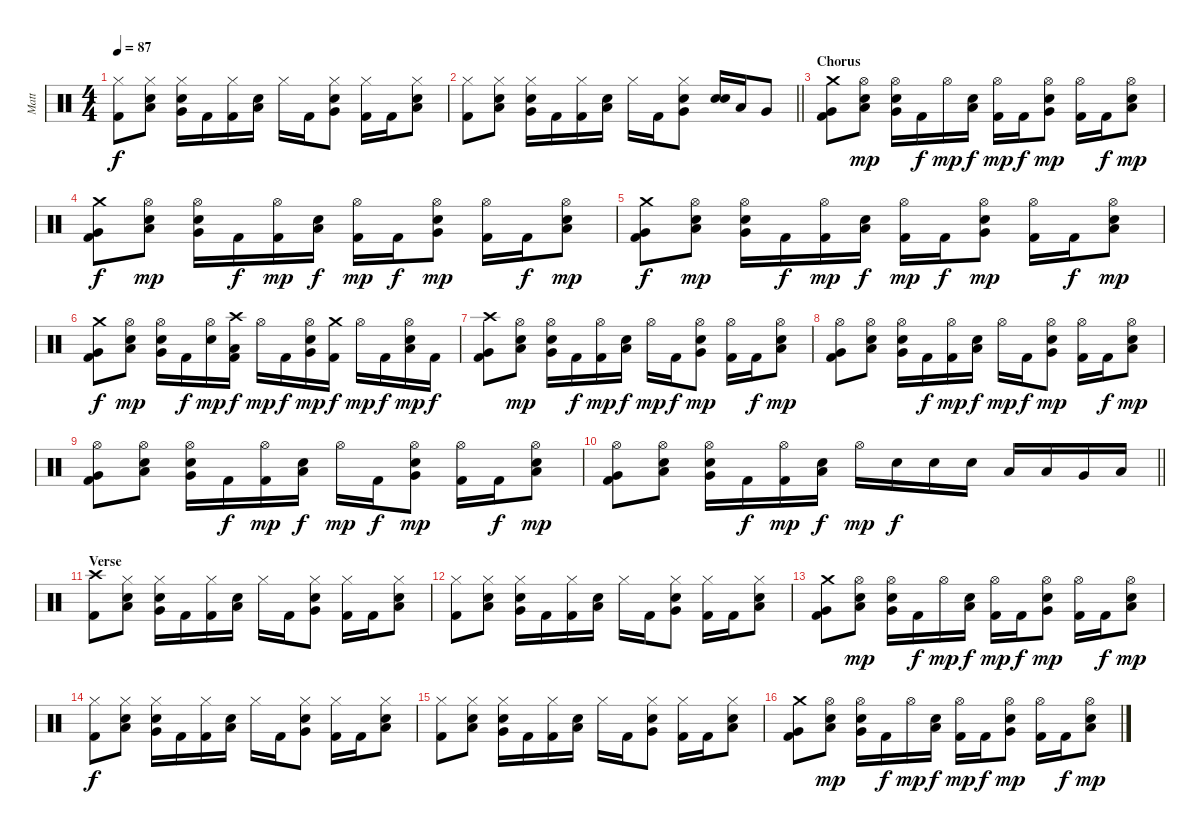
\track ("Matt" "Matt") {instrument percussion}
\staff {score}
\articulation defaults
\ts (4 4)
\tempo 87
\clef neutral
\ks c
("Hi-Hat (closed)" "Kick (hit) 2").8{dy f} ("Hi-Hat (closed)" "Low Tom (hit)" "Snare (hit) 2").8 ("Hi-Hat (closed)" "Very Low Tom (hit)" "Snare (hit) 2").16 "Kick (hit) 2".16 ("Hi-Hat (closed)" "Kick (hit) 2").16 ("Low Tom (hit)" "Snare (hit) 2").16 "Hi-Hat (closed)".16 "Kick (hit) 2".16 ("Hi-Hat (closed)" "Very Low Tom (hit)" "Snare (hit) 2").8 ("Hi-Hat (closed)" "Kick (hit) 2").16 "Kick (hit) 2".16 ("Hi-Hat (closed)" "Low Tom (hit)" "Snare (hit) 2").8 |
\barLineRight lightlight
("Hi-Hat (closed)" "Kick (hit) 2").8 ("Hi-Hat (closed)" "Low Tom (hit)" "Snare (hit) 2").8 ("Hi-Hat (closed)" "Very Low Tom (hit)" "Snare (hit) 2").16 "Kick (hit) 2".16 ("Hi-Hat (closed)" "Kick (hit) 2").16 ("Low Tom (hit)" "Snare (hit) 2").16 "Hi-Hat (closed)".16 "Kick (hit) 2".16 ("Hi-Hat (closed)" "Very Low Tom (hit)" "Snare (hit) 2").8 ("Snare (hit) 2" "Snare (hit) 2").16 "Low Tom (hit)".16 "Very Low Tom (hit)".8 |
\section ("" "Chorus")
("Crash medium (hit)" "Very Low Tom (hit)" "Kick (hit) 2").8 ("Hi-Hat (open)" "Low Tom (hit)" "Snare (hit) 2").8{dy mp} ("Hi-Hat (open)" "Very Low Tom (hit)" "Snare (hit) 2").16 "Kick (hit) 2".16{dy f} "Hi-Hat (open)".16{dy mp} ("Low Tom (hit)" "Snare (hit) 2").16{dy f} ("Hi-Hat (open)" "Kick (hit) 2").16{dy mp} "Kick (hit) 2".16{dy f} ("Hi-Hat (open)" "Very Low Tom (hit)" "Snare (hit) 2").8{dy mp} ("Hi-Hat (open)" "Kick (hit) 2").16 "Kick (hit) 2".16{dy f} ("Hi-Hat (open)" "Low Tom (hit)" "Snare (hit) 2").8{dy mp} |
("Crash medium (hit)" "Very Low Tom (hit)" "Kick (hit) 2").8{dy f} ("Hi-Hat (open)" "Low Tom (hit)" "Snare (hit) 2").8{dy mp} ("Hi-Hat (open)" "Very Low Tom (hit)" "Snare (hit) 2").16 "Kick (hit) 2".16{dy f} ("Hi-Hat (open)" "Kick (hit) 2").16{dy mp} ("Low Tom (hit)" "Snare (hit) 2").16{dy f} ("Hi-Hat (open)" "Kick (hit) 2").16{dy mp} "Kick (hit) 2".16{dy f} ("Hi-Hat (open)" "Very Low Tom (hit)" "Snare (hit) 2").8{dy mp} ("Hi-Hat (open)" "Kick (hit) 2").16 "Kick (hit) 2".16{dy f} ("Hi-Hat (open)" "Low Tom (hit)" "Snare (hit) 2").8{dy mp} |
("Crash medium (hit)" "Very Low Tom (hit)" "Kick (hit) 2").8{dy f} ("Hi-Hat (open)" "Low Tom (hit)" "Snare (hit) 2").8{dy mp} ("Hi-Hat (open)" "Very Low Tom (hit)" "Snare (hit) 2").16 "Kick (hit) 2".16{dy f} ("Hi-Hat (open)" "Kick (hit) 2").16{dy mp} ("Low Tom (hit)" "Snare (hit) 2").16{dy f} ("Hi-Hat (open)" "Kick (hit) 2").16{dy mp} "Kick (hit) 2".16{dy f} ("Hi-Hat (open)" "Very Low Tom (hit)" "Snare (hit) 2").8{dy mp} ("Hi-Hat (open)" "Kick (hit) 2").16 "Kick (hit) 2".16{dy f} ("Hi-Hat (open)" "Low Tom (hit)" "Snare (hit) 2").8{dy mp} |
("Crash medium (hit)" "Very Low Tom (hit)" "Kick (hit) 2").8{dy f} ("Hi-Hat (open)" "Low Tom (hit)" "Snare (hit) 2").8{dy mp} ("Hi-Hat (open)" "Very Low Tom (hit)" "Snare (hit) 2").16 "Kick (hit) 2".16{dy f} ("Hi-Hat (open)" "Snare (hit) 2").16{dy mp} ("Crash high (hit)" "Low Tom (hit)" "Kick (hit) 2").16{dy f} "Hi-Hat (open)".16{dy mp} "Kick (hit) 2".16{dy f} ("Hi-Hat (open)" "Very Low Tom (hit)" "Snare (hit) 2").16{dy mp} ("Crash medium (hit)" "Kick (hit) 2").16{dy f} "Hi-Hat (open)".16{dy mp} "Kick (hit) 2".16{dy f} ("Hi-Hat (open)" "Low Tom (hit)" "Snare (hit) 2").16{dy mp} "Kick (hit) 2".16{dy f} |
("Crash high (hit)" "Very Low Tom (hit)" "Kick (hit) 2").8 ("Hi-Hat (open)" "Low Tom (hit)" "Snare (hit) 2").8{dy mp} ("Hi-Hat (open)" "Very Low Tom (hit)" "Snare (hit) 2").16 "Kick (hit) 2".16{dy f} ("Hi-Hat (open)" "Kick (hit) 2").16{dy mp} ("Low Tom (hit)" "Snare (hit) 2").16{dy f} "Hi-Hat (open)".16{dy mp} "Kick (hit) 2".16{dy f} ("Hi-Hat (open)" "Very Low Tom (hit)" "Snare (hit) 2").8{dy mp} ("Hi-Hat (open)" "Kick (hit) 2").16 "Kick (hit) 2".16{dy f} ("Hi-Hat (open)" "Low Tom (hit)" "Snare (hit) 2").8{dy mp} |
("Hi-Hat (open)" "Very Low Tom (hit)" "Kick (hit) 2").8 ("Hi-Hat (open)" "Low Tom (hit)" "Snare (hit) 2").8 ("Hi-Hat (open)" "Very Low Tom (hit)" "Snare (hit) 2").16 "Kick (hit) 2".16{dy f} ("Hi-Hat (open)" "Kick (hit) 2").16{dy mp} ("Low Tom (hit)" "Snare (hit) 2").16{dy f} "Hi-Hat (open)".16{dy mp} "Kick (hit) 2".16{dy f} ("Hi-Hat (open)" "Very Low Tom (hit)" "Snare (hit) 2").8{dy mp} ("Hi-Hat (open)" "Kick (hit) 2").16 "Kick (hit) 2".16{dy f} ("Hi-Hat (open)" "Low Tom (hit)" "Snare (hit) 2").8{dy mp} |
("Hi-Hat (open)" "Very Low Tom (hit)" "Kick (hit) 2").8 ("Hi-Hat (open)" "Low Tom (hit)" "Snare (hit) 2").8 ("Hi-Hat (open)" "Very Low Tom (hit)" "Snare (hit) 2").16 "Kick (hit) 2".16{dy f} ("Hi-Hat (open)" "Kick (hit) 2").16{dy mp} ("Low Tom (hit)" "Snare (hit) 2").16{dy f} "Hi-Hat (open)".16{dy mp} "Kick (hit) 2".16{dy f} ("Hi-Hat (open)" "Very Low Tom (hit)" "Snare (hit) 2").8{dy mp} ("Hi-Hat (open)" "Kick (hit) 2").16 "Kick (hit) 2".16{dy f} ("Hi-Hat (open)" "Low Tom (hit)" "Snare (hit) 2").8{dy mp} |
\barLineRight lightlight
("Hi-Hat (open)" "Very Low Tom (hit)" "Kick (hit) 2").8 ("Hi-Hat (open)" "Low Tom (hit)" "Snare (hit) 2").8 ("Hi-Hat (open)" "Very Low Tom (hit)" "Snare (hit) 2").16 "Kick (hit) 2".16{dy f} ("Hi-Hat (open)" "Kick (hit) 2").16{dy mp} ("Low Tom (hit)" "Snare (hit) 2").16{dy f} "Hi-Hat (open)".16{dy mp} "Snare (hit) 2".16{dy f} "Snare (hit) 2".16 "Snare (hit) 2".16 "Low Tom (hit)".16 "Low Tom (hit)".16 "Very Low Tom (hit)".16 "Low Floor Tom (hit)".16 |
\section ("" "Verse")
("Crash high (hit)" "Kick (hit) 2").8 ("Hi-Hat (closed)" "Low Tom (hit)" "Snare (hit) 2").8 ("Hi-Hat (closed)" "Very Low Tom (hit)" "Snare (hit) 2").16 "Kick (hit) 2".16 ("Hi-Hat (closed)" "Kick (hit) 2").16 ("Low Tom (hit)" "Snare (hit) 2").16 "Hi-Hat (closed)".16 "Kick (hit) 2".16 ("Hi-Hat (closed)" "Very Low Tom (hit)" "Snare (hit) 2").8 ("Hi-Hat (closed)" "Kick (hit) 2").16 "Kick (hit) 2".16 ("Hi-Hat (closed)" "Low Tom (hit)" "Snare (hit) 2").8 |
("Hi-Hat (closed)" "Kick (hit) 2").8 ("Hi-Hat (closed)" "Low Tom (hit)" "Snare (hit) 2").8 ("Hi-Hat (closed)" "Very Low Tom (hit)" "Snare (hit) 2").16 "Kick (hit) 2".16 ("Hi-Hat (closed)" "Kick (hit) 2").16 ("Low Tom (hit)" "Snare (hit) 2").16 "Hi-Hat (closed)".16 "Kick (hit) 2".16 ("Hi-Hat (closed)" "Very Low Tom (hit)" "Snare (hit) 2").8 ("Hi-Hat (closed)" "Kick (hit) 2").16 "Kick (hit) 2".16 ("Hi-Hat (closed)" "Low Tom (hit)" "Snare (hit) 2").8 |
("Crash medium (hit)" "Very Low Tom (hit)" "Kick (hit) 2").8 ("Hi-Hat (open)" "Low Tom (hit)" "Snare (hit) 2").8{dy mp} ("Hi-Hat (open)" "Very Low Tom (hit)" "Snare (hit) 2").16 "Kick (hit) 2".16{dy f} "Hi-Hat (open)".16{dy mp} ("Low Tom (hit)" "Snare (hit) 2").16{dy f} ("Hi-Hat (open)" "Kick (hit) 2").16{dy mp} "Kick (hit) 2".16{dy f} ("Hi-Hat (open)" "Very Low Tom (hit)" "Snare (hit) 2").8{dy mp} ("Hi-Hat (open)" "Kick (hit) 2").16 "Kick (hit) 2".16{dy f} ("Hi-Hat (open)" "Low Tom (hit)" "Snare (hit) 2").8{dy mp} |
("Hi-Hat (closed)" "Kick (hit) 2").8{dy f} ("Hi-Hat (closed)" "Low Tom (hit)" "Snare (hit) 2").8 ("Hi-Hat (closed)" "Very Low Tom (hit)" "Snare (hit) 2").16 "Kick (hit) 2".16 ("Hi-Hat (closed)" "Kick (hit) 2").16 ("Low Tom (hit)" "Snare (hit) 2").16 "Hi-Hat (closed)".16 "Kick (hit) 2".16 ("Hi-Hat (closed)" "Very Low Tom (hit)" "Snare (hit) 2").8 ("Hi-Hat (closed)" "Kick (hit) 2").16 "Kick (hit) 2".16 ("Hi-Hat (closed)" "Low Tom (hit)" "Snare (hit) 2").8 |
("Hi-Hat (closed)" "Kick (hit) 2").8 ("Hi-Hat (closed)" "Low Tom (hit)" "Snare (hit) 2").8 ("Hi-Hat (closed)" "Very Low Tom (hit)" "Snare (hit) 2").16 "Kick (hit) 2".16 ("Hi-Hat (closed)" "Kick (hit) 2").16 ("Low Tom (hit)" "Snare (hit) 2").16 "Hi-Hat (closed)".16 "Kick (hit) 2".16 ("Hi-Hat (closed)" "Very Low Tom (hit)" "Snare (hit) 2").8 ("Hi-Hat (closed)" "Kick (hit) 2").16 "Kick (hit) 2".16 ("Hi-Hat (closed)" "Low Tom (hit)" "Snare (hit) 2").8 |
("Crash medium (hit)" "Very Low Tom (hit)" "Kick (hit) 2").8 ("Hi-Hat (open)" "Low Tom (hit)" "Snare (hit) 2").8{dy mp} ("Hi-Hat (open)" "Very Low Tom (hit)" "Snare (hit) 2").16 "Kick (hit) 2".16{dy f} "Hi-Hat (open)".16{dy mp} ("Low Tom (hit)" "Snare (hit) 2").16{dy f} ("Hi-Hat (open)" "Kick (hit) 2").16{dy mp} "Kick (hit) 2".16{dy f} ("Hi-Hat (open)" "Very Low Tom (hit)" "Snare (hit) 2").8{dy mp} ("Hi-Hat (open)" "Kick (hit) 2").16 "Kick (hit) 2".16{dy f} ("Hi-Hat (open)" "Low Tom (hit)" "Snare (hit) 2").8{dy mp}
